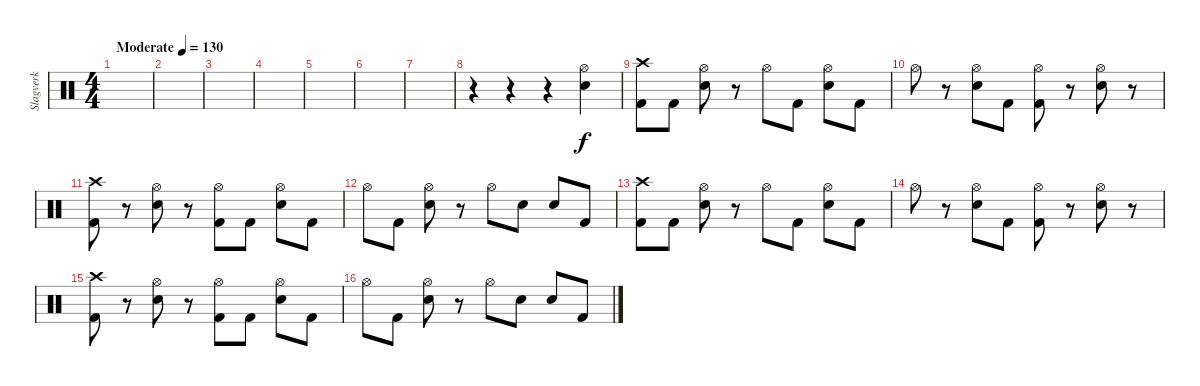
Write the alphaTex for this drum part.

\track ("Slagverk" "Slagverk") {instrument percussion}
\staff {score}
\articulation defaults
\ts (4 4)
\tempo (130 "Moderate")
\clef neutral
\ks c
|
|
|
|
|
|
|
r.4 r.4 r.4 ("Hi-Hat (open)" "Snare (hit) 2").4 |
("Crash high (hit)" "Kick (hit) 2").8 "Kick (hit) 2".8 ("Hi-Hat (open)" "Snare (hit) 2").8 r.8 "Hi-Hat (open)".8 "Kick (hit) 2".8 ("Hi-Hat (open)" "Snare (hit) 2").8 "Kick (hit) 2".8 |
"Hi-Hat (open)".8 r.8 ("Hi-Hat (open)" "Snare (hit) 2").8 "Kick (hit) 2".8 ("Hi-Hat (open)" "Kick (hit) 2").8 r.8 ("Hi-Hat (open)" "Snare (hit) 2").8 r.8 |
("Crash high (hit)" "Kick (hit) 2").8 r.8 ("Hi-Hat (open)" "Snare (hit) 2").8 r.8 ("Hi-Hat (open)" "Kick (hit) 2").8 "Kick (hit) 2".8 ("Hi-Hat (open)" "Snare (hit) 2").8 "Kick (hit) 2".8 |
"Hi-Hat (open)".8 "Kick (hit) 2".8 ("Hi-Hat (open)" "Snare (hit) 2").8 r.8 "Hi-Hat (open)".8 "Snare (hit) 2".8 "Snare (hit) 2".8 "Kick (hit) 2".8 |
("Crash high (hit)" "Kick (hit) 2").8 "Kick (hit) 2".8 ("Hi-Hat (open)" "Snare (hit) 2").8 r.8 "Hi-Hat (open)".8 "Kick (hit) 2".8 ("Hi-Hat (open)" "Snare (hit) 2").8 "Kick (hit) 2".8 |
"Hi-Hat (open)".8 r.8 ("Hi-Hat (open)" "Snare (hit) 2").8 "Kick (hit) 2".8 ("Hi-Hat (open)" "Kick (hit) 2").8 r.8 ("Hi-Hat (open)" "Snare (hit) 2").8 r.8 |
("Crash high (hit)" "Kick (hit) 2").8 r.8 ("Hi-Hat (open)" "Snare (hit) 2").8 r.8 ("Hi-Hat (open)" "Kick (hit) 2").8 "Kick (hit) 2".8 ("Hi-Hat (open)" "Snare (hit) 2").8 "Kick (hit) 2".8 |
"Hi-Hat (open)".8 "Kick (hit) 2".8 ("Hi-Hat (open)" "Snare (hit) 2").8 r.8 "Hi-Hat (open)".8 "Snare (hit) 2".8 "Snare (hit) 2".8 "Kick (hit) 2".8
